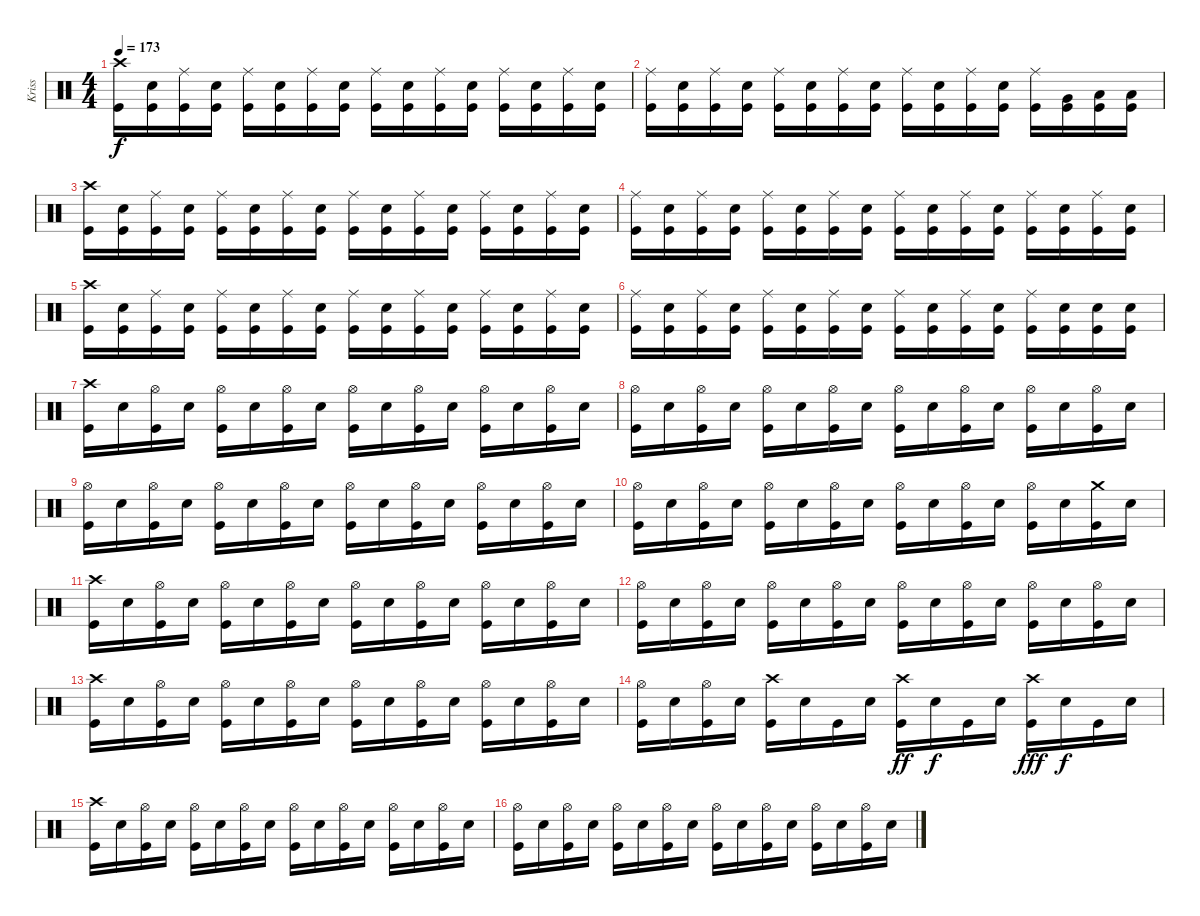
\track ("Kriss" "Kriss") {instrument percussion}
\staff {score}
\articulation defaults
\ts (4 4)
\tempo 173
\clef neutral
\ks c
("Crash high (hit)" "Kick (hit)").16{dy f} ("Snare (hit) 2" "Kick (hit)").16 ("Ride (middle)" "Kick (hit)").16 ("Snare (hit) 2" "Kick (hit)").16 ("Ride (middle)" "Kick (hit)").16 ("Snare (hit) 2" "Kick (hit)").16 ("Ride (middle)" "Kick (hit)").16 ("Snare (hit) 2" "Kick (hit)").16 ("Ride (middle)" "Kick (hit)").16 ("Snare (hit) 2" "Kick (hit)").16 ("Ride (middle)" "Kick (hit)").16 ("Snare (hit) 2" "Kick (hit)").16 ("Ride (middle)" "Kick (hit)").16 ("Snare (hit) 2" "Kick (hit)").16 ("Ride (middle)" "Kick (hit)").16 ("Snare (hit) 2" "Kick (hit)").16 |
("Ride (middle)" "Kick (hit)").16 ("Snare (hit) 2" "Kick (hit)").16 ("Ride (middle)" "Kick (hit)").16 ("Snare (hit) 2" "Kick (hit)").16 ("Ride (middle)" "Kick (hit)").16 ("Snare (hit) 2" "Kick (hit)").16 ("Ride (middle)" "Kick (hit)").16 ("Snare (hit) 2" "Kick (hit)").16 ("Ride (middle)" "Kick (hit)").16 ("Snare (hit) 2" "Kick (hit)").16 ("Ride (middle)" "Kick (hit)").16 ("Snare (hit) 2" "Kick (hit)").16 ("Ride (middle)" "Kick (hit)").16 ("Very Low Tom (hit)" "Kick (hit)").16 ("Low Floor Tom (hit)" "Kick (hit)").16 ("Low Floor Tom (hit)" "Kick (hit)").16 |
("Crash high (hit)" "Kick (hit)").16 ("Snare (hit) 2" "Kick (hit)").16 ("Ride (middle)" "Kick (hit)").16 ("Snare (hit) 2" "Kick (hit)").16 ("Ride (middle)" "Kick (hit)").16 ("Snare (hit) 2" "Kick (hit)").16 ("Ride (middle)" "Kick (hit)").16 ("Snare (hit) 2" "Kick (hit)").16 ("Ride (middle)" "Kick (hit)").16 ("Snare (hit) 2" "Kick (hit)").16 ("Ride (middle)" "Kick (hit)").16 ("Snare (hit) 2" "Kick (hit)").16 ("Ride (middle)" "Kick (hit)").16 ("Snare (hit) 2" "Kick (hit)").16 ("Ride (middle)" "Kick (hit)").16 ("Snare (hit) 2" "Kick (hit)").16 |
("Ride (middle)" "Kick (hit)").16 ("Snare (hit) 2" "Kick (hit)").16 ("Ride (middle)" "Kick (hit)").16 ("Snare (hit) 2" "Kick (hit)").16 ("Ride (middle)" "Kick (hit)").16 ("Snare (hit) 2" "Kick (hit)").16 ("Ride (middle)" "Kick (hit)").16 ("Snare (hit) 2" "Kick (hit)").16 ("Ride (middle)" "Kick (hit)").16 ("Snare (hit) 2" "Kick (hit)").16 ("Ride (middle)" "Kick (hit)").16 ("Snare (hit) 2" "Kick (hit)").16 ("Ride (middle)" "Kick (hit)").16 ("Snare (hit) 2" "Kick (hit)").16 ("Ride (middle)" "Kick (hit)").16 ("Snare (hit) 2" "Kick (hit)").16 |
("Crash high (hit)" "Kick (hit)").16 ("Snare (hit) 2" "Kick (hit)").16 ("Ride (middle)" "Kick (hit)").16 ("Snare (hit) 2" "Kick (hit)").16 ("Ride (middle)" "Kick (hit)").16 ("Snare (hit) 2" "Kick (hit)").16 ("Ride (middle)" "Kick (hit)").16 ("Snare (hit) 2" "Kick (hit)").16 ("Ride (middle)" "Kick (hit)").16 ("Snare (hit) 2" "Kick (hit)").16 ("Ride (middle)" "Kick (hit)").16 ("Snare (hit) 2" "Kick (hit)").16 ("Ride (middle)" "Kick (hit)").16 ("Snare (hit) 2" "Kick (hit)").16 ("Ride (middle)" "Kick (hit)").16 ("Snare (hit) 2" "Kick (hit)").16 |
("Ride (middle)" "Kick (hit)").16 ("Snare (hit) 2" "Kick (hit)").16 ("Ride (middle)" "Kick (hit)").16 ("Snare (hit) 2" "Kick (hit)").16 ("Ride (middle)" "Kick (hit)").16 ("Snare (hit) 2" "Kick (hit)").16 ("Ride (middle)" "Kick (hit)").16 ("Snare (hit) 2" "Kick (hit)").16 ("Ride (middle)" "Kick (hit)").16 ("Snare (hit) 2" "Kick (hit)").16 ("Ride (middle)" "Kick (hit)").16 ("Snare (hit) 2" "Kick (hit)").16 ("Ride (middle)" "Kick (hit)").16 ("Snare (hit) 2" "Kick (hit)").16 ("Snare (hit) 2" "Kick (hit)").16 ("Snare (hit) 2" "Kick (hit)").16 |
("Crash high (hit)" "Kick (hit)").16 "Snare (hit) 2".16 ("Hi-Hat (open)" "Kick (hit)").16 "Snare (hit) 2".16 ("Hi-Hat (open)" "Kick (hit)").16 "Snare (hit) 2".16 ("Hi-Hat (open)" "Kick (hit)").16 "Snare (hit) 2".16 ("Hi-Hat (open)" "Kick (hit)").16 "Snare (hit) 2".16 ("Hi-Hat (open)" "Kick (hit)").16 "Snare (hit) 2".16 ("Hi-Hat (open)" "Kick (hit)").16 "Snare (hit) 2".16 ("Hi-Hat (open)" "Kick (hit)").16 "Snare (hit) 2".16 |
("Hi-Hat (open)" "Kick (hit)").16 "Snare (hit) 2".16 ("Hi-Hat (open)" "Kick (hit)").16 "Snare (hit) 2".16 ("Hi-Hat (open)" "Kick (hit)").16 "Snare (hit) 2".16 ("Hi-Hat (open)" "Kick (hit)").16 "Snare (hit) 2".16 ("Hi-Hat (open)" "Kick (hit)").16 "Snare (hit) 2".16 ("Hi-Hat (open)" "Kick (hit)").16 "Snare (hit) 2".16 ("Hi-Hat (open)" "Kick (hit)").16 "Snare (hit) 2".16 ("Hi-Hat (open)" "Kick (hit)").16 "Snare (hit) 2".16 |
("Hi-Hat (open)" "Kick (hit)").16 "Snare (hit) 2".16 ("Hi-Hat (open)" "Kick (hit)").16 "Snare (hit) 2".16 ("Hi-Hat (open)" "Kick (hit)").16 "Snare (hit) 2".16 ("Hi-Hat (open)" "Kick (hit)").16 "Snare (hit) 2".16 ("Hi-Hat (open)" "Kick (hit)").16 "Snare (hit) 2".16 ("Hi-Hat (open)" "Kick (hit)").16 "Snare (hit) 2".16 ("Hi-Hat (open)" "Kick (hit)").16 "Snare (hit) 2".16 ("Hi-Hat (open)" "Kick (hit)").16 "Snare (hit) 2".16 |
("Hi-Hat (open)" "Kick (hit)").16 "Snare (hit) 2".16 ("Hi-Hat (open)" "Kick (hit)").16 "Snare (hit) 2".16 ("Hi-Hat (open)" "Kick (hit)").16 "Snare (hit) 2".16 ("Hi-Hat (open)" "Kick (hit)").16 "Snare (hit) 2".16 ("Hi-Hat (open)" "Kick (hit)").16 "Snare (hit) 2".16 ("Hi-Hat (open)" "Kick (hit)").16 "Snare (hit) 2".16 ("Hi-Hat (open)" "Kick (hit)").16 "Snare (hit) 2".16 ("Crash medium (hit)" "Kick (hit)").16 "Snare (hit) 2".16 |
("Crash high (hit)" "Kick (hit)").16 "Snare (hit) 2".16 ("Hi-Hat (open)" "Kick (hit)").16 "Snare (hit) 2".16 ("Hi-Hat (open)" "Kick (hit)").16 "Snare (hit) 2".16 ("Hi-Hat (open)" "Kick (hit)").16 "Snare (hit) 2".16 ("Hi-Hat (open)" "Kick (hit)").16 "Snare (hit) 2".16 ("Hi-Hat (open)" "Kick (hit)").16 "Snare (hit) 2".16 ("Hi-Hat (open)" "Kick (hit)").16 "Snare (hit) 2".16 ("Hi-Hat (open)" "Kick (hit)").16 "Snare (hit) 2".16 |
("Hi-Hat (open)" "Kick (hit)").16 "Snare (hit) 2".16 ("Hi-Hat (open)" "Kick (hit)").16 "Snare (hit) 2".16 ("Hi-Hat (open)" "Kick (hit)").16 "Snare (hit) 2".16 ("Hi-Hat (open)" "Kick (hit)").16 "Snare (hit) 2".16 ("Hi-Hat (open)" "Kick (hit)").16 "Snare (hit) 2".16 ("Hi-Hat (open)" "Kick (hit)").16 "Snare (hit) 2".16 ("Hi-Hat (open)" "Kick (hit)").16 "Snare (hit) 2".16 ("Hi-Hat (open)" "Kick (hit)").16 "Snare (hit) 2".16 |
("Crash high (hit)" "Kick (hit)").16 "Snare (hit) 2".16 ("Hi-Hat (open)" "Kick (hit)").16 "Snare (hit) 2".16 ("Hi-Hat (open)" "Kick (hit)").16 "Snare (hit) 2".16 ("Hi-Hat (open)" "Kick (hit)").16 "Snare (hit) 2".16 ("Hi-Hat (open)" "Kick (hit)").16 "Snare (hit) 2".16 ("Hi-Hat (open)" "Kick (hit)").16 "Snare (hit) 2".16 ("Hi-Hat (open)" "Kick (hit)").16 "Snare (hit) 2".16 ("Hi-Hat (open)" "Kick (hit)").16 "Snare (hit) 2".16 |
("Hi-Hat (open)" "Kick (hit)").16 "Snare (hit) 2".16 ("Hi-Hat (open)" "Kick (hit)").16 "Snare (hit) 2".16 ("Crash high (hit)" "Kick (hit)").16 "Snare (hit) 2".16 "Kick (hit)".16 "Snare (hit) 2".16 ("Crash high (hit)" "Kick (hit)").16{dy ff} "Snare (hit) 2".16{dy f} "Kick (hit)".16 "Snare (hit) 2".16 ("Crash high (hit)" "Kick (hit)").16{dy fff} "Snare (hit) 2".16{dy f} "Kick (hit)".16 "Snare (hit) 2".16 |
("Crash high (hit)" "Kick (hit)").16 "Snare (hit) 2".16 ("Hi-Hat (open)" "Kick (hit)").16 "Snare (hit) 2".16 ("Hi-Hat (open)" "Kick (hit)").16 "Snare (hit) 2".16 ("Hi-Hat (open)" "Kick (hit)").16 "Snare (hit) 2".16 ("Hi-Hat (open)" "Kick (hit)").16 "Snare (hit) 2".16 ("Hi-Hat (open)" "Kick (hit)").16 "Snare (hit) 2".16 ("Hi-Hat (open)" "Kick (hit)").16 "Snare (hit) 2".16 ("Hi-Hat (open)" "Kick (hit)").16 "Snare (hit) 2".16 |
("Hi-Hat (open)" "Kick (hit)").16 "Snare (hit) 2".16 ("Hi-Hat (open)" "Kick (hit)").16 "Snare (hit) 2".16 ("Hi-Hat (open)" "Kick (hit)").16 "Snare (hit) 2".16 ("Hi-Hat (open)" "Kick (hit)").16 "Snare (hit) 2".16 ("Hi-Hat (open)" "Kick (hit)").16 "Snare (hit) 2".16 ("Hi-Hat (open)" "Kick (hit)").16 "Snare (hit) 2".16 ("Hi-Hat (open)" "Kick (hit)").16 "Snare (hit) 2".16 ("Hi-Hat (open)" "Kick (hit)").16 "Snare (hit) 2".16
